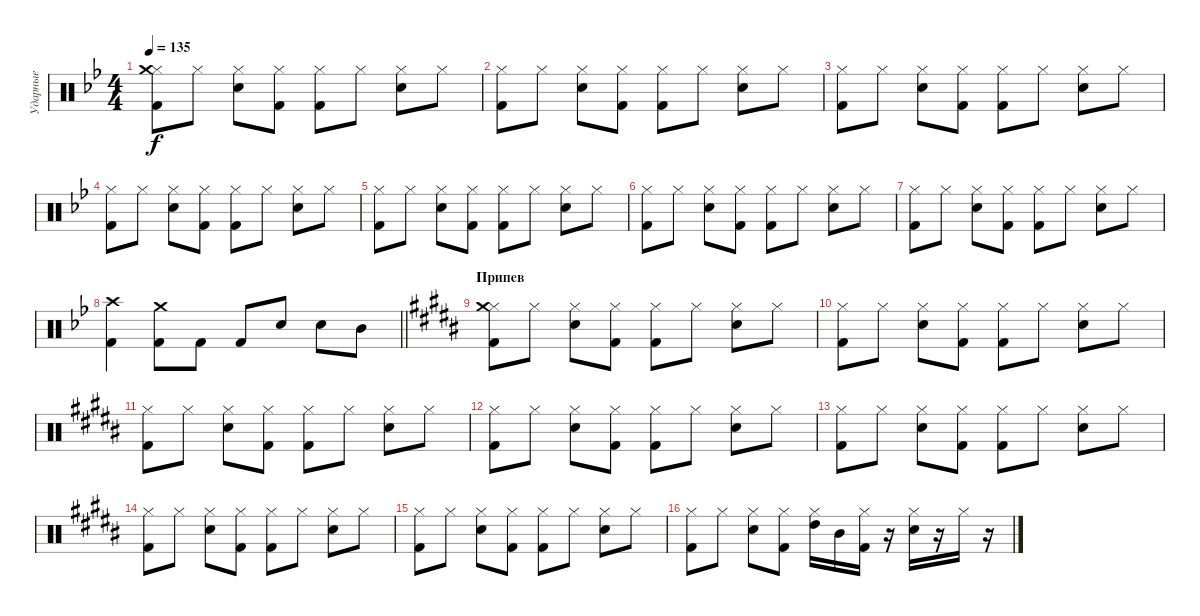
\track ("Ударные" "Ударные") {instrument percussion}
\staff {score}
\articulation defaults
\ts (4 4)
\tempo 135
\clef neutral
\ks gminor
("Hi-Hat (closed)" "Crash medium (hit)" "Kick (hit) 2").8{dy f} "Hi-Hat (closed)".8 ("Hi-Hat (closed)" "Electric Snare (hit)").8 ("Hi-Hat (closed)" "Kick (hit) 2").8 ("Hi-Hat (closed)" "Kick (hit) 2").8 "Hi-Hat (closed)".8 ("Hi-Hat (closed)" "Electric Snare (hit)").8 "Hi-Hat (closed)".8 |
("Hi-Hat (closed)" "Kick (hit) 2").8 "Hi-Hat (closed)".8 ("Hi-Hat (closed)" "Electric Snare (hit)").8 ("Hi-Hat (closed)" "Kick (hit) 2").8 ("Hi-Hat (closed)" "Kick (hit) 2").8 "Hi-Hat (closed)".8 ("Hi-Hat (closed)" "Electric Snare (hit)").8 "Hi-Hat (closed)".8 |
("Hi-Hat (closed)" "Kick (hit) 2").8 "Hi-Hat (closed)".8 ("Hi-Hat (closed)" "Electric Snare (hit)").8 ("Hi-Hat (closed)" "Kick (hit) 2").8 ("Hi-Hat (closed)" "Kick (hit) 2").8 "Hi-Hat (closed)".8 ("Hi-Hat (closed)" "Electric Snare (hit)").8 "Hi-Hat (closed)".8 |
("Hi-Hat (closed)" "Kick (hit) 2").8 "Hi-Hat (closed)".8 ("Hi-Hat (closed)" "Electric Snare (hit)").8 ("Hi-Hat (closed)" "Kick (hit) 2").8 ("Hi-Hat (closed)" "Kick (hit) 2").8 "Hi-Hat (closed)".8 ("Hi-Hat (closed)" "Electric Snare (hit)").8 "Hi-Hat (closed)".8 |
("Hi-Hat (closed)" "Kick (hit) 2").8 "Hi-Hat (closed)".8 ("Hi-Hat (closed)" "Electric Snare (hit)").8 ("Hi-Hat (closed)" "Kick (hit) 2").8 ("Hi-Hat (closed)" "Kick (hit) 2").8 "Hi-Hat (closed)".8 ("Hi-Hat (closed)" "Electric Snare (hit)").8 "Hi-Hat (closed)".8 |
("Hi-Hat (closed)" "Kick (hit) 2").8 "Hi-Hat (closed)".8 ("Hi-Hat (closed)" "Electric Snare (hit)").8 ("Hi-Hat (closed)" "Kick (hit) 2").8 ("Hi-Hat (closed)" "Kick (hit) 2").8 "Hi-Hat (closed)".8 ("Hi-Hat (closed)" "Electric Snare (hit)").8 "Hi-Hat (closed)".8 |
("Hi-Hat (closed)" "Kick (hit) 2").8 "Hi-Hat (closed)".8 ("Hi-Hat (closed)" "Electric Snare (hit)").8 ("Hi-Hat (closed)" "Kick (hit) 2").8 ("Hi-Hat (closed)" "Kick (hit) 2").8 "Hi-Hat (closed)".8 ("Hi-Hat (closed)" "Electric Snare (hit)").8 "Hi-Hat (closed)".8 |
\barLineRight lightlight
("Crash high (hit)" "Kick (hit) 2").4 ("Crash medium (hit)" "Kick (hit) 2").8 "Kick (hit) 2".8 "Kick (hit) 2".8 "Electric Snare (hit)".8 "Electric Snare (hit)".8 "Mid Tom (hit)".8 |
\section ("" "Припев")
\ks g#minor
("Hi-Hat (closed)" "Crash medium (hit)" "Kick (hit) 2").8 "Hi-Hat (closed)".8 ("Hi-Hat (closed)" "Electric Snare (hit)").8 ("Hi-Hat (closed)" "Kick (hit) 2").8 ("Hi-Hat (closed)" "Kick (hit) 2").8 "Hi-Hat (closed)".8 ("Hi-Hat (closed)" "Electric Snare (hit)").8 "Hi-Hat (closed)".8 |
("Hi-Hat (closed)" "Kick (hit) 2").8 "Hi-Hat (closed)".8 ("Hi-Hat (closed)" "Electric Snare (hit)").8 ("Hi-Hat (closed)" "Kick (hit) 2").8 ("Hi-Hat (closed)" "Kick (hit) 2").8 "Hi-Hat (closed)".8 ("Hi-Hat (closed)" "Electric Snare (hit)").8 "Hi-Hat (closed)".8 |
("Hi-Hat (closed)" "Kick (hit) 2").8 "Hi-Hat (closed)".8 ("Hi-Hat (closed)" "Electric Snare (hit)").8 ("Hi-Hat (closed)" "Kick (hit) 2").8 ("Hi-Hat (closed)" "Kick (hit) 2").8 "Hi-Hat (closed)".8 ("Hi-Hat (closed)" "Electric Snare (hit)").8 "Hi-Hat (closed)".8 |
("Hi-Hat (closed)" "Kick (hit) 2").8 "Hi-Hat (closed)".8 ("Hi-Hat (closed)" "Electric Snare (hit)").8 ("Hi-Hat (closed)" "Kick (hit) 2").8 ("Hi-Hat (closed)" "Kick (hit) 2").8 "Hi-Hat (closed)".8 ("Hi-Hat (closed)" "Electric Snare (hit)").8 "Hi-Hat (closed)".8 |
("Hi-Hat (closed)" "Kick (hit) 2").8 "Hi-Hat (closed)".8 ("Hi-Hat (closed)" "Electric Snare (hit)").8 ("Hi-Hat (closed)" "Kick (hit) 2").8 ("Hi-Hat (closed)" "Kick (hit) 2").8 "Hi-Hat (closed)".8 ("Hi-Hat (closed)" "Electric Snare (hit)").8 "Hi-Hat (closed)".8 |
("Hi-Hat (closed)" "Kick (hit) 2").8 "Hi-Hat (closed)".8 ("Hi-Hat (closed)" "Electric Snare (hit)").8 ("Hi-Hat (closed)" "Kick (hit) 2").8 ("Hi-Hat (closed)" "Kick (hit) 2").8 "Hi-Hat (closed)".8 ("Hi-Hat (closed)" "Electric Snare (hit)").8 "Hi-Hat (closed)".8 |
("Hi-Hat (closed)" "Kick (hit) 2").8 "Hi-Hat (closed)".8 ("Hi-Hat (closed)" "Electric Snare (hit)").8 ("Hi-Hat (closed)" "Kick (hit) 2").8 ("Hi-Hat (closed)" "Kick (hit) 2").8 "Hi-Hat (closed)".8 ("Hi-Hat (closed)" "Electric Snare (hit)").8 "Hi-Hat (closed)".8 |
("Hi-Hat (closed)" "Kick (hit) 2").8 "Hi-Hat (closed)".8 ("Hi-Hat (closed)" "Electric Snare (hit)").8 ("Hi-Hat (closed)" "Kick (hit) 2").8 ("Hi-Hat (closed)" "High Tom (hit)").16 "Mid Tom (hit)".16 ("Hi-Hat (closed)" "Kick (hit) 2").16 r.16 ("Hi-Hat (closed)" "Electric Snare (hit)").16 r.16 "Hi-Hat (closed)".16 r.16
